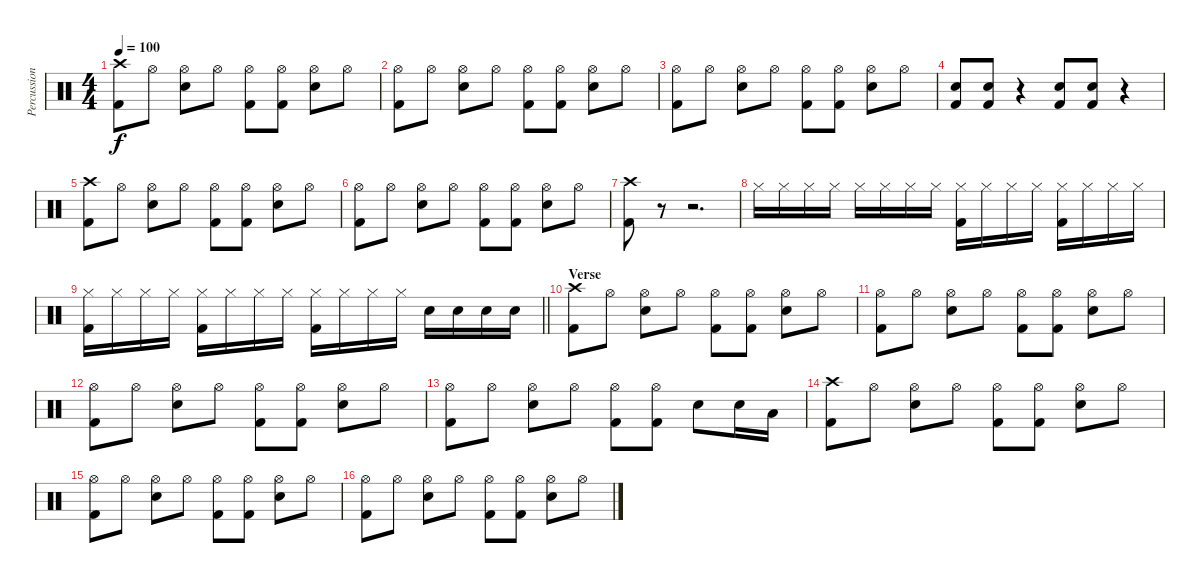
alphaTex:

\track ("Percussion" "Percussion") {instrument percussion}
\staff {score}
\articulation defaults
\ts (4 4)
\tempo 100
\clef neutral
\ks c
("Crash high (hit)" "Kick (hit) 2").8{dy f} "Hi-Hat (open)".8 ("Hi-Hat (open)" "Electric Snare (hit)").8 "Hi-Hat (open)".8 ("Hi-Hat (open)" "Kick (hit) 2").8 ("Hi-Hat (open)" "Kick (hit) 2").8 ("Hi-Hat (open)" "Electric Snare (hit)").8 "Hi-Hat (open)".8 |
("Hi-Hat (open)" "Kick (hit) 2").8 "Hi-Hat (open)".8 ("Hi-Hat (open)" "Electric Snare (hit)").8 "Hi-Hat (open)".8 ("Hi-Hat (open)" "Kick (hit) 2").8 ("Hi-Hat (open)" "Kick (hit) 2").8 ("Hi-Hat (open)" "Electric Snare (hit)").8 "Hi-Hat (open)".8 |
("Hi-Hat (open)" "Kick (hit) 2").8 "Hi-Hat (open)".8 ("Hi-Hat (open)" "Electric Snare (hit)").8 "Hi-Hat (open)".8 ("Hi-Hat (open)" "Kick (hit) 2").8 ("Hi-Hat (open)" "Kick (hit) 2").8 ("Hi-Hat (open)" "Electric Snare (hit)").8 "Hi-Hat (open)".8 |
("Electric Snare (hit)" "Kick (hit) 2").8 ("Electric Snare (hit)" "Kick (hit) 2").8 r.4 ("Electric Snare (hit)" "Kick (hit) 2").8 ("Electric Snare (hit)" "Kick (hit) 2").8 r.4 |
("Crash high (hit)" "Kick (hit) 2").8 "Hi-Hat (open)".8 ("Hi-Hat (open)" "Electric Snare (hit)").8 "Hi-Hat (open)".8 ("Hi-Hat (open)" "Kick (hit) 2").8 ("Hi-Hat (open)" "Kick (hit) 2").8 ("Hi-Hat (open)" "Electric Snare (hit)").8 "Hi-Hat (open)".8 |
("Hi-Hat (open)" "Kick (hit) 2").8 "Hi-Hat (open)".8 ("Hi-Hat (open)" "Electric Snare (hit)").8 "Hi-Hat (open)".8 ("Hi-Hat (open)" "Kick (hit) 2").8 ("Hi-Hat (open)" "Kick (hit) 2").8 ("Hi-Hat (open)" "Electric Snare (hit)").8 "Hi-Hat (open)".8 |
("Crash high (hit)" "Kick (hit) 2").8 r.8 r.2{d} |
"Hi-Hat (closed)".16 "Hi-Hat (closed)".16 "Hi-Hat (closed)".16 "Hi-Hat (closed)".16 "Hi-Hat (closed)".16 "Hi-Hat (closed)".16 "Hi-Hat (closed)".16 "Hi-Hat (closed)".16 ("Hi-Hat (closed)" "Kick (hit) 2").16 "Hi-Hat (closed)".16 "Hi-Hat (closed)".16 "Hi-Hat (closed)".16 ("Hi-Hat (closed)" "Kick (hit) 2").16 "Hi-Hat (closed)".16 "Hi-Hat (closed)".16 "Hi-Hat (closed)".16 |
\barLineRight lightlight
("Hi-Hat (closed)" "Kick (hit) 2").16 "Hi-Hat (closed)".16 "Hi-Hat (closed)".16 "Hi-Hat (closed)".16 ("Hi-Hat (closed)" "Kick (hit) 2").16 "Hi-Hat (closed)".16 "Hi-Hat (closed)".16 "Hi-Hat (closed)".16 ("Hi-Hat (closed)" "Kick (hit) 2").16 "Hi-Hat (closed)".16 "Hi-Hat (closed)".16 "Hi-Hat (closed)".16 "Electric Snare (hit)".16 "Electric Snare (hit)".16 "Electric Snare (hit)".16 "Electric Snare (hit)".16 |
\section ("" "Verse")
("Crash high (hit)" "Kick (hit) 2").8 "Hi-Hat (open)".8 ("Hi-Hat (open)" "Electric Snare (hit)").8 "Hi-Hat (open)".8 ("Hi-Hat (open)" "Kick (hit) 2").8 ("Hi-Hat (open)" "Kick (hit) 2").8 ("Hi-Hat (open)" "Electric Snare (hit)").8 "Hi-Hat (open)".8 |
("Hi-Hat (open)" "Kick (hit) 2").8 "Hi-Hat (open)".8 ("Hi-Hat (open)" "Electric Snare (hit)").8 "Hi-Hat (open)".8 ("Hi-Hat (open)" "Kick (hit) 2").8 ("Hi-Hat (open)" "Kick (hit) 2").8 ("Hi-Hat (open)" "Electric Snare (hit)").8 "Hi-Hat (open)".8 |
("Hi-Hat (open)" "Kick (hit) 2").8 "Hi-Hat (open)".8 ("Hi-Hat (open)" "Electric Snare (hit)").8 "Hi-Hat (open)".8 ("Hi-Hat (open)" "Kick (hit) 2").8 ("Hi-Hat (open)" "Kick (hit) 2").8 ("Hi-Hat (open)" "Electric Snare (hit)").8 "Hi-Hat (open)".8 |
("Hi-Hat (open)" "Kick (hit) 2").8 "Hi-Hat (open)".8 ("Hi-Hat (open)" "Electric Snare (hit)").8 "Hi-Hat (open)".8 ("Hi-Hat (open)" "Kick (hit) 2").8 ("Hi-Hat (open)" "Kick (hit) 2").8 "Electric Snare (hit)".8 "Electric Snare (hit)".16 "Low Tom (hit)".16 |
("Crash high (hit)" "Kick (hit) 2").8 "Hi-Hat (open)".8 ("Hi-Hat (open)" "Electric Snare (hit)").8 "Hi-Hat (open)".8 ("Hi-Hat (open)" "Kick (hit) 2").8 ("Hi-Hat (open)" "Kick (hit) 2").8 ("Hi-Hat (open)" "Electric Snare (hit)").8 "Hi-Hat (open)".8 |
("Hi-Hat (open)" "Kick (hit) 2").8 "Hi-Hat (open)".8 ("Hi-Hat (open)" "Electric Snare (hit)").8 "Hi-Hat (open)".8 ("Hi-Hat (open)" "Kick (hit) 2").8 ("Hi-Hat (open)" "Kick (hit) 2").8 ("Hi-Hat (open)" "Electric Snare (hit)").8 "Hi-Hat (open)".8 |
("Hi-Hat (open)" "Kick (hit) 2").8 "Hi-Hat (open)".8 ("Hi-Hat (open)" "Electric Snare (hit)").8 "Hi-Hat (open)".8 ("Hi-Hat (open)" "Kick (hit) 2").8 ("Hi-Hat (open)" "Kick (hit) 2").8 ("Hi-Hat (open)" "Electric Snare (hit)").8 "Hi-Hat (open)".8
